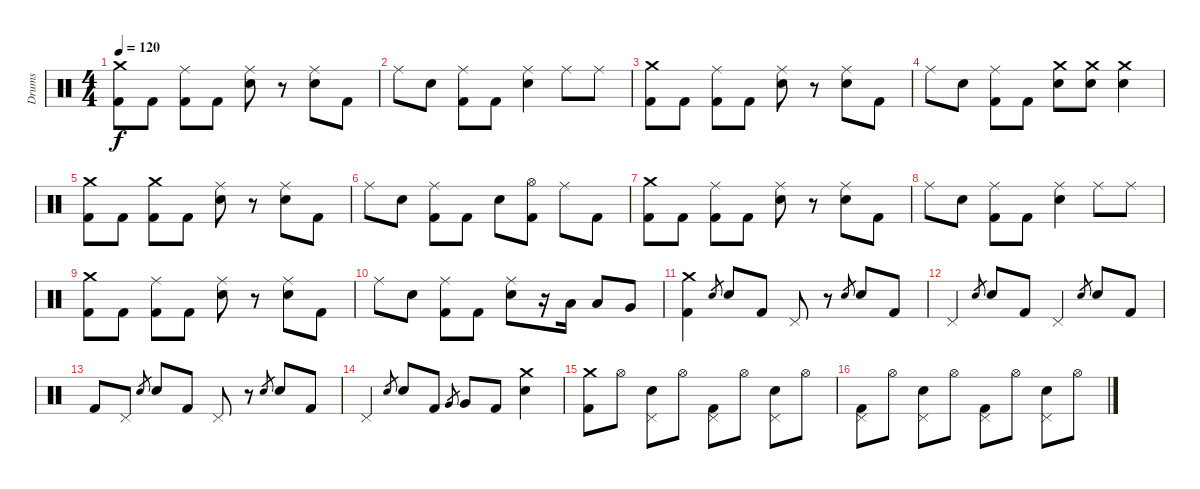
\track ("Drums" "Drums") {instrument percussion}
\staff {score}
\articulation defaults
\ts (4 4)
\tempo 120
\clef neutral
\ks c
("Crash medium (hit)" "Kick (hit) 2").8{dy f} "Kick (hit) 2".8 ("Ride (middle)" "Kick (hit) 2").8 "Kick (hit) 2".8 ("Ride (middle)" "Electric Snare (hit)").8 r.8 ("Ride (middle)" "Electric Snare (hit)").8 "Kick (hit) 2".8 |
"Ride (middle)".8 "Electric Snare (hit)".8 ("Ride (middle)" "Kick (hit) 2").8 "Kick (hit) 2".8 ("Ride (middle)" "Electric Snare (hit)").4 "Ride (middle)".8 "Ride (middle)".8 |
("Crash medium (hit)" "Kick (hit) 2").8 "Kick (hit) 2".8 ("Ride (middle)" "Kick (hit) 2").8 "Kick (hit) 2".8 ("Ride (middle)" "Electric Snare (hit)").8 r.8 ("Ride (middle)" "Electric Snare (hit)").8 "Kick (hit) 2".8 |
"Ride (middle)".8 "Electric Snare (hit)".8 ("Ride (middle)" "Kick (hit) 2").8 "Kick (hit) 2".8 ("Crash medium (hit)" "Electric Snare (hit)").8 ("Crash medium (hit)" "Electric Snare (hit)").8 ("Crash medium (hit)" "Electric Snare (hit)").4 |
("Crash medium (hit)" "Kick (hit) 2").8 "Kick (hit) 2".8 ("Crash medium (hit)" "Kick (hit) 2").8 "Kick (hit) 2".8 ("Ride (middle)" "Electric Snare (hit)").8 r.8 ("Ride (middle)" "Electric Snare (hit)").8 "Kick (hit) 2".8 |
"Ride (middle)".8 "Electric Snare (hit)".8 ("Ride (middle)" "Kick (hit) 2").8 "Kick (hit) 2".8 "Electric Snare (hit)".8 ("Hi-Hat (open)" "Kick (hit) 2").8 "Ride (middle)".8 "Kick (hit) 2".8 |
("Crash medium (hit)" "Kick (hit) 2").8 "Kick (hit) 2".8 ("Ride (middle)" "Kick (hit) 2").8 "Kick (hit) 2".8 ("Ride (middle)" "Electric Snare (hit)").8 r.8 ("Ride (middle)" "Electric Snare (hit)").8 "Kick (hit) 2".8 |
"Ride (middle)".8 "Electric Snare (hit)".8 ("Ride (middle)" "Kick (hit) 2").8 "Kick (hit) 2".8 ("Ride (middle)" "Electric Snare (hit)").4 "Ride (middle)".8 "Ride (middle)".8 |
("Crash medium (hit)" "Kick (hit) 2").8 "Kick (hit) 2".8 ("Ride (middle)" "Kick (hit) 2").8 "Kick (hit) 2".8 ("Ride (middle)" "Electric Snare (hit)").8 r.8 ("Ride (middle)" "Electric Snare (hit)").8 "Kick (hit) 2".8 |
"Ride (middle)".8 "Electric Snare (hit)".8 ("Ride (middle)" "Kick (hit) 2").8 "Kick (hit) 2".8 ("Ride (middle)" "Electric Snare (hit)").8 r.16 "Low Tom (hit)".16 "Low Tom (hit)".8 "Very Low Tom (hit)".8 |
("Crash medium (hit)" "Kick (hit) 2").4 "Electric Snare (hit)".8{gr} "Electric Snare (hit)".8 "Kick (hit) 2".8 "Pedal Hi-Hat (hit)".8 r.8 "Electric Snare (hit)".8{gr} "Electric Snare (hit)".8 "Kick (hit) 2".8 |
"Pedal Hi-Hat (hit)".4 "Electric Snare (hit)".8{gr} "Electric Snare (hit)".8 "Kick (hit) 2".8 "Pedal Hi-Hat (hit)".4 "Electric Snare (hit)".8{gr} "Electric Snare (hit)".8 "Kick (hit) 2".8 |
"Kick (hit) 2".8 "Pedal Hi-Hat (hit)".8 "Electric Snare (hit)".8{gr} "Electric Snare (hit)".8 "Kick (hit) 2".8 "Pedal Hi-Hat (hit)".8 r.8 "Electric Snare (hit)".8{gr} "Electric Snare (hit)".8 "Kick (hit) 2".8 |
"Pedal Hi-Hat (hit)".4 "Electric Snare (hit)".8{gr} "Electric Snare (hit)".8 "Kick (hit) 2".8 "Very Low Tom (hit)".8{gr} "Very Low Tom (hit)".8 "Kick (hit) 2".8 ("Crash medium (hit)" "Electric Snare (hit)").4 |
("Crash medium (hit)" "Kick (hit) 2").8 "Hi-Hat (open)".8 ("Pedal Hi-Hat (hit)" "Electric Snare (hit)").8 "Hi-Hat (open)".8 ("Pedal Hi-Hat (hit)" "Kick (hit) 2").8 "Hi-Hat (open)".8 ("Pedal Hi-Hat (hit)" "Electric Snare (hit)").8 "Hi-Hat (open)".8 |
("Pedal Hi-Hat (hit)" "Kick (hit) 2").8 "Hi-Hat (open)".8 ("Pedal Hi-Hat (hit)" "Electric Snare (hit)").8 "Hi-Hat (open)".8 ("Pedal Hi-Hat (hit)" "Kick (hit) 2").8 "Hi-Hat (open)".8 ("Pedal Hi-Hat (hit)" "Electric Snare (hit)").8 "Hi-Hat (open)".8
